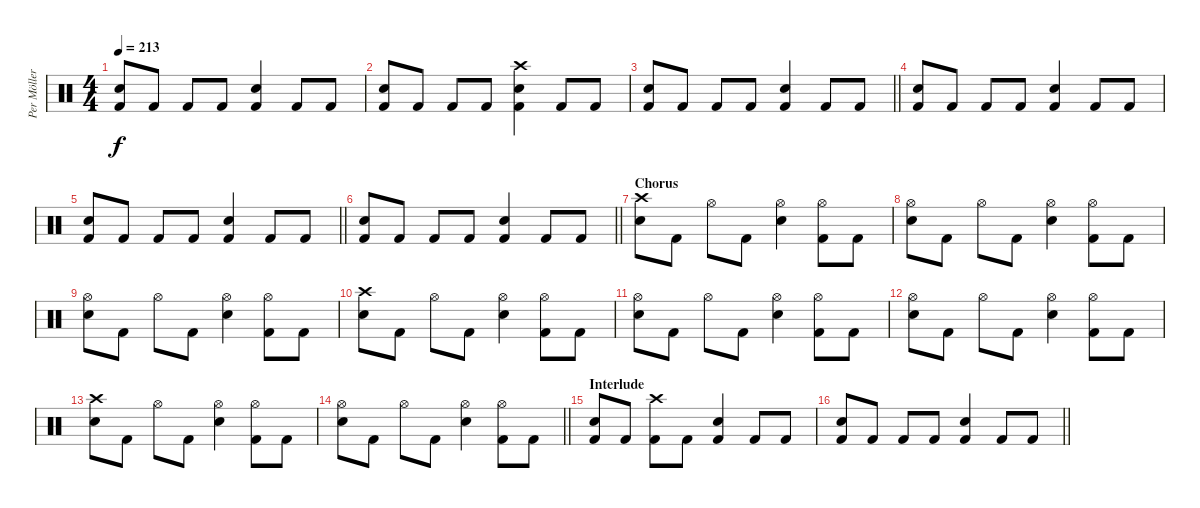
\track ("Per Möller Jensen" "Per Möller") {instrument percussion}
\staff {score}
\articulation defaults
\ts (4 4)
\section ("" "")
\tempo 213
\clef neutral
\ks c
("Electric Snare (hit)" "Kick (hit) 2").8{dy f} "Kick (hit) 2".8 "Kick (hit) 2".8 "Kick (hit) 2".8 ("Electric Snare (hit)" "Kick (hit) 2").4 "Kick (hit) 2".8 "Kick (hit) 2".8 |
("Electric Snare (hit)" "Kick (hit) 2").8 "Kick (hit) 2".8 "Kick (hit) 2".8 "Kick (hit) 2".8 ("Crash high (hit)" "Electric Snare (hit)" "Kick (hit) 2").4 "Kick (hit) 2".8 "Kick (hit) 2".8 |
\barLineRight lightlight
("Electric Snare (hit)" "Kick (hit) 2").8 "Kick (hit) 2".8 "Kick (hit) 2".8 "Kick (hit) 2".8 ("Electric Snare (hit)" "Kick (hit) 2").4 "Kick (hit) 2".8 "Kick (hit) 2".8 |
("Electric Snare (hit)" "Kick (hit) 2").8 "Kick (hit) 2".8 "Kick (hit) 2".8 "Kick (hit) 2".8 ("Electric Snare (hit)" "Kick (hit) 2").4 "Kick (hit) 2".8 "Kick (hit) 2".8 |
\barLineRight lightlight
("Electric Snare (hit)" "Kick (hit) 2").8 "Kick (hit) 2".8 "Kick (hit) 2".8 "Kick (hit) 2".8 ("Electric Snare (hit)" "Kick (hit) 2").4 "Kick (hit) 2".8 "Kick (hit) 2".8 |
\barLineRight lightlight
("Electric Snare (hit)" "Kick (hit) 2").8 "Kick (hit) 2".8 "Kick (hit) 2".8 "Kick (hit) 2".8 ("Electric Snare (hit)" "Kick (hit) 2").4 "Kick (hit) 2".8 "Kick (hit) 2".8 |
\section ("" "Chorus")
("Crash high (hit)" "Electric Snare (hit)").8 "Kick (hit) 2".8 "Hi-Hat (open)".8 "Kick (hit) 2".8 ("Hi-Hat (open)" "Electric Snare (hit)").4 ("Hi-Hat (open)" "Kick (hit) 2").8 "Kick (hit) 2".8 |
("Hi-Hat (open)" "Electric Snare (hit)").8 "Kick (hit) 2".8 "Hi-Hat (open)".8 "Kick (hit) 2".8 ("Hi-Hat (open)" "Electric Snare (hit)").4 ("Hi-Hat (open)" "Kick (hit) 2").8 "Kick (hit) 2".8 |
("Hi-Hat (open)" "Electric Snare (hit)").8 "Kick (hit) 2".8 "Hi-Hat (open)".8 "Kick (hit) 2".8 ("Hi-Hat (open)" "Electric Snare (hit)").4 ("Hi-Hat (open)" "Kick (hit) 2").8 "Kick (hit) 2".8 |
("Crash high (hit)" "Electric Snare (hit)").8 "Kick (hit) 2".8 "Hi-Hat (open)".8 "Kick (hit) 2".8 ("Hi-Hat (open)" "Electric Snare (hit)").4 ("Hi-Hat (open)" "Kick (hit) 2").8 "Kick (hit) 2".8 |
("Hi-Hat (open)" "Electric Snare (hit)").8 "Kick (hit) 2".8 "Hi-Hat (open)".8 "Kick (hit) 2".8 ("Hi-Hat (open)" "Electric Snare (hit)").4 ("Hi-Hat (open)" "Kick (hit) 2").8 "Kick (hit) 2".8 |
("Hi-Hat (open)" "Electric Snare (hit)").8 "Kick (hit) 2".8 "Hi-Hat (open)".8 "Kick (hit) 2".8 ("Hi-Hat (open)" "Electric Snare (hit)").4 ("Hi-Hat (open)" "Kick (hit) 2").8 "Kick (hit) 2".8 |
("Crash high (hit)" "Electric Snare (hit)").8 "Kick (hit) 2".8 "Hi-Hat (open)".8 "Kick (hit) 2".8 ("Hi-Hat (open)" "Electric Snare (hit)").4 ("Hi-Hat (open)" "Kick (hit) 2").8 "Kick (hit) 2".8 |
\barLineRight lightlight
("Hi-Hat (open)" "Electric Snare (hit)").8 "Kick (hit) 2".8 "Hi-Hat (open)".8 "Kick (hit) 2".8 ("Hi-Hat (open)" "Electric Snare (hit)").4 ("Hi-Hat (open)" "Kick (hit) 2").8 "Kick (hit) 2".8 |
\section ("" "Interlude")
("Electric Snare (hit)" "Kick (hit) 2").8 "Kick (hit) 2".8 ("Crash high (hit)" "Kick (hit) 2").8 "Kick (hit) 2".8 ("Electric Snare (hit)" "Kick (hit) 2").4 "Kick (hit) 2".8 "Kick (hit) 2".8 |
\barLineRight lightlight
("Electric Snare (hit)" "Kick (hit) 2").8 "Kick (hit) 2".8 "Kick (hit) 2".8 "Kick (hit) 2".8 ("Electric Snare (hit)" "Kick (hit) 2").4 "Kick (hit) 2".8 "Kick (hit) 2".8
